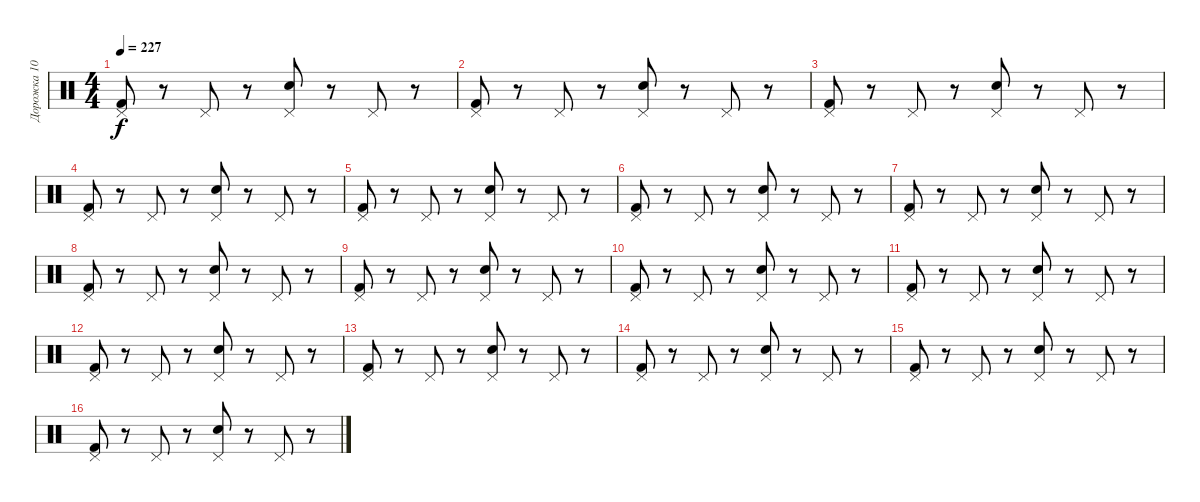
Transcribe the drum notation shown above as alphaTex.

\track ("Дорожка 10" "Дорожка 10") {instrument percussion}
\staff {score}
\articulation defaults
\ts (4 4)
\tempo 227
\clef neutral
\ks c
("Pedal Hi-Hat (hit)" "Kick (hit) 2").8{dy f} r.8 "Pedal Hi-Hat (hit)".8 r.8 ("Pedal Hi-Hat (hit)" "Snare (hit) 2").8 r.8 "Pedal Hi-Hat (hit)".8 r.8 |
("Kick (hit) 2" "Pedal Hi-Hat (hit)").8 r.8 "Pedal Hi-Hat (hit)".8 r.8 ("Pedal Hi-Hat (hit)" "Snare (hit) 2").8 r.8 "Pedal Hi-Hat (hit)".8 r.8 |
("Pedal Hi-Hat (hit)" "Kick (hit) 2").8 r.8 "Pedal Hi-Hat (hit)".8 r.8 ("Pedal Hi-Hat (hit)" "Snare (hit) 2").8 r.8 "Pedal Hi-Hat (hit)".8 r.8 |
("Kick (hit) 2" "Pedal Hi-Hat (hit)").8 r.8 "Pedal Hi-Hat (hit)".8 r.8 ("Pedal Hi-Hat (hit)" "Snare (hit) 2").8 r.8 "Pedal Hi-Hat (hit)".8 r.8 |
("Pedal Hi-Hat (hit)" "Kick (hit) 2").8 r.8 "Pedal Hi-Hat (hit)".8 r.8 ("Pedal Hi-Hat (hit)" "Snare (hit) 2").8 r.8 "Pedal Hi-Hat (hit)".8 r.8 |
("Kick (hit) 2" "Pedal Hi-Hat (hit)").8 r.8 "Pedal Hi-Hat (hit)".8 r.8 ("Pedal Hi-Hat (hit)" "Snare (hit) 2").8 r.8 "Pedal Hi-Hat (hit)".8 r.8 |
("Pedal Hi-Hat (hit)" "Kick (hit) 2").8 r.8 "Pedal Hi-Hat (hit)".8 r.8 ("Pedal Hi-Hat (hit)" "Snare (hit) 2").8 r.8 "Pedal Hi-Hat (hit)".8 r.8 |
("Kick (hit) 2" "Pedal Hi-Hat (hit)").8 r.8 "Pedal Hi-Hat (hit)".8 r.8 ("Pedal Hi-Hat (hit)" "Snare (hit) 2").8 r.8 "Pedal Hi-Hat (hit)".8 r.8 |
("Pedal Hi-Hat (hit)" "Kick (hit) 2").8 r.8 "Pedal Hi-Hat (hit)".8 r.8 ("Pedal Hi-Hat (hit)" "Snare (hit) 2").8 r.8 "Pedal Hi-Hat (hit)".8 r.8 |
("Kick (hit) 2" "Pedal Hi-Hat (hit)").8 r.8 "Pedal Hi-Hat (hit)".8 r.8 ("Pedal Hi-Hat (hit)" "Snare (hit) 2").8 r.8 "Pedal Hi-Hat (hit)".8 r.8 |
("Pedal Hi-Hat (hit)" "Kick (hit) 2").8 r.8 "Pedal Hi-Hat (hit)".8 r.8 ("Pedal Hi-Hat (hit)" "Snare (hit) 2").8 r.8 "Pedal Hi-Hat (hit)".8 r.8 |
("Kick (hit) 2" "Pedal Hi-Hat (hit)").8 r.8 "Pedal Hi-Hat (hit)".8 r.8 ("Pedal Hi-Hat (hit)" "Snare (hit) 2").8 r.8 "Pedal Hi-Hat (hit)".8 r.8 |
("Pedal Hi-Hat (hit)" "Kick (hit) 2").8 r.8 "Pedal Hi-Hat (hit)".8 r.8 ("Pedal Hi-Hat (hit)" "Snare (hit) 2").8 r.8 "Pedal Hi-Hat (hit)".8 r.8 |
("Kick (hit) 2" "Pedal Hi-Hat (hit)").8 r.8 "Pedal Hi-Hat (hit)".8 r.8 ("Pedal Hi-Hat (hit)" "Snare (hit) 2").8 r.8 "Pedal Hi-Hat (hit)".8 r.8 |
("Pedal Hi-Hat (hit)" "Kick (hit) 2").8 r.8 "Pedal Hi-Hat (hit)".8 r.8 ("Pedal Hi-Hat (hit)" "Snare (hit) 2").8 r.8 "Pedal Hi-Hat (hit)".8 r.8 |
("Kick (hit) 2" "Pedal Hi-Hat (hit)").8 r.8 "Pedal Hi-Hat (hit)".8 r.8 ("Pedal Hi-Hat (hit)" "Snare (hit) 2").8 r.8 "Pedal Hi-Hat (hit)".8 r.8
